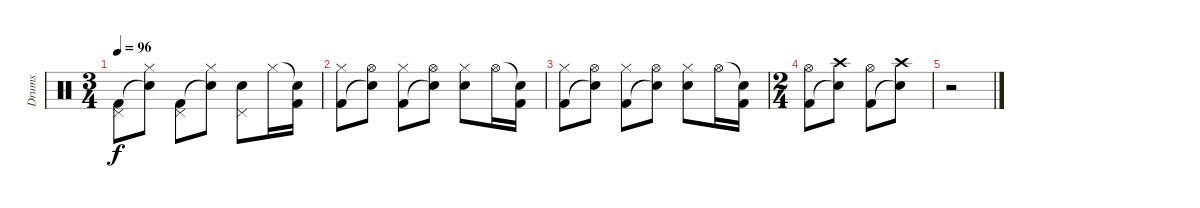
\track ("Drums" "Drums") {instrument percussion}
\staff {score}
\articulation defaults
\ts (3 4)
\tempo 96
\clef neutral
\ks c
("Pedal Hi-Hat (hit)" "Kick (hit) 2").8{dy f} ("Hi-Hat (closed)" "Snare (hit)"{t}).8 ("Pedal Hi-Hat (hit)" "Kick (hit) 2").8 ("Hi-Hat (closed)" "Snare (hit)"{t}).8 ("Pedal Hi-Hat (hit)" "Electric Snare (hit)").8 "Hi-Hat (closed)".16 ("Snare (hit)"{t} "Kick (hit) 2").16 |
("Hi-Hat (closed)" "Kick (hit) 2").8 ("Hi-Hat (open)" "Snare (hit)"{t}).8 ("Hi-Hat (closed)" "Kick (hit) 2").8 ("Hi-Hat (open)" "Snare (hit)"{t}).8 ("Hi-Hat (closed)" "Electric Snare (hit)").8 "Hi-Hat (open)".16 ("Snare (hit)"{t} "Kick (hit) 2").16 |
("Hi-Hat (closed)" "Kick (hit) 2").8 ("Hi-Hat (open)" "Snare (hit)"{t}).8 ("Hi-Hat (closed)" "Kick (hit) 2").8 ("Hi-Hat (open)" "Snare (hit)"{t}).8 ("Hi-Hat (closed)" "Electric Snare (hit)").8 "Hi-Hat (open)".16 ("Snare (hit)"{t} "Kick (hit) 2").16 |
\ts (2 4)
("Hi-Hat (open)" "Kick (hit) 2").8 ("Crash high (hit)" "Snare (hit)"{t}).8 ("Hi-Hat (open)" "Kick (hit) 2").8 ("Crash high (hit)" "Snare (hit)"{t}).8 |
r.2
